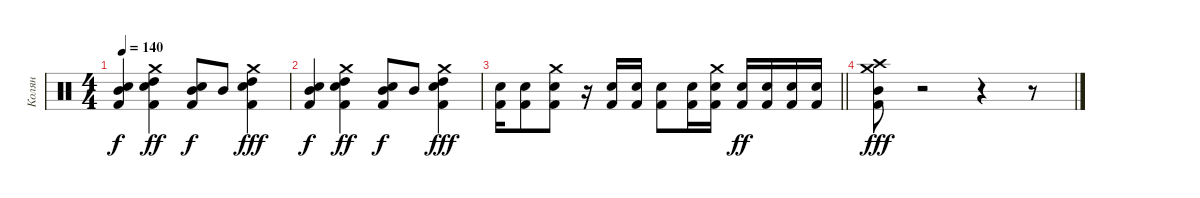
\track ("Колян" "Колян") {instrument percussion}
\staff {score}
\articulation defaults
\ts (4 4)
\tempo 140
\clef neutral
\ks c
("Mid Tom (hit)" "Snare (hit) 2" "Kick (hit) 2").4{dy f} ("Crash medium (hit)" "High Tom (hit)" "Snare (hit) 2" "Kick (hit) 2").4{dy ff} ("Mid Tom (hit)" "Snare (hit) 2" "Kick (hit) 2").8{dy f} "Mid Tom (hit)".8 ("Crash medium (hit)" "High Tom (hit)" "Snare (hit) 2" "Kick (hit) 2").4{dy fff} |
("Mid Tom (hit)" "Snare (hit) 2" "Kick (hit) 2").4{dy f} ("Crash medium (hit)" "High Tom (hit)" "Snare (hit) 2" "Kick (hit) 2").4{dy ff} ("Mid Tom (hit)" "Snare (hit) 2" "Kick (hit) 2").8{dy f} "Mid Tom (hit)".8 ("Crash medium (hit)" "High Tom (hit)" "Snare (hit) 2" "Kick (hit) 2").4{dy fff} |
\barLineRight lightlight
("Snare (hit) 2" "Kick (hit) 2").16 ("Snare (hit) 2" "Kick (hit) 2").8 ("Crash medium (hit)" "Snare (hit) 2" "Kick (hit) 2").8 r.16 ("Snare (hit) 2" "Kick (hit) 2").16 ("Snare (hit) 2" "Kick (hit) 2").16 ("Snare (hit) 2" "Kick (hit) 2").8 ("Snare (hit) 2" "Kick (hit) 2").16 ("Crash medium (hit)" "Snare (hit) 2" "Kick (hit) 2").16 ("Snare (hit) 2" "Kick (hit) 2").16{dy ff} ("Snare (hit) 2" "Kick (hit) 2").16 ("Snare (hit) 2" "Kick (hit) 2").16 ("Snare (hit) 2" "Kick (hit) 2").16 |
("Crash medium (hit)" "Mid Tom (hit)" "Crash high (hit)" "Kick (hit) 2").8{dy fff} r.2 r.4 r.8
